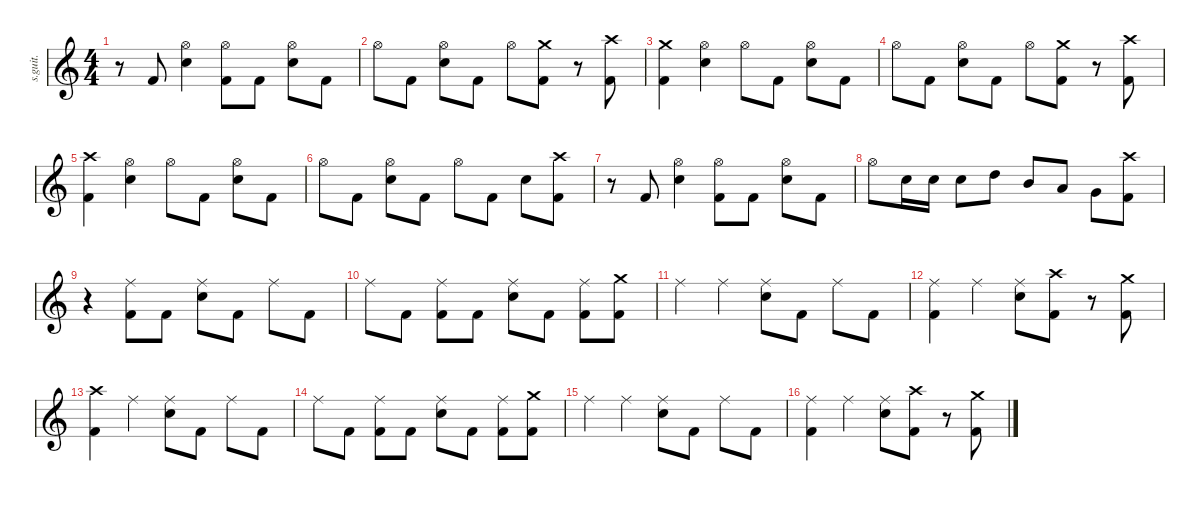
\defaultSystemsLayout 4
\hideDynamics
\bracketExtendMode nobrackets
\track ("Nick Menza (Drums)" "s.guit.") {instrument percussion}
\staff {score}
\articulation defaults
\ts (4 4)
\tempo (196 hide)
\clef g2
\ks c
r.8{dy f} "Kick (hit) 2".8{lyrics (0 "") lyrics (1 "") lyrics (2 "") lyrics (3 "") lyrics (4 "") dy fff} ("Hi-Hat (open)" "Snare (hit) 2").4{lyrics (0 "") lyrics (1 "") lyrics (2 "") lyrics (3 "") lyrics (4 "") dy f} ("Hi-Hat (open)" "Kick (hit) 2").8{lyrics (0 "") lyrics (1 "") lyrics (2 "") lyrics (3 "") lyrics (4 "")} "Kick (hit) 2".8{lyrics (0 "") lyrics (1 "") lyrics (2 "") lyrics (3 "") lyrics (4 "") dy fff} ("Hi-Hat (open)" "Snare (hit) 2").8{lyrics (0 "") lyrics (1 "") lyrics (2 "") lyrics (3 "") lyrics (4 "") dy f} "Kick (hit) 2".8{lyrics (0 "") lyrics (1 "") lyrics (2 "") lyrics (3 "") lyrics (4 "") dy fff} |
"Hi-Hat (open)".8{lyrics (0 "") lyrics (1 "") lyrics (2 "") lyrics (3 "") lyrics (4 "") dy f} "Kick (hit) 2".8{lyrics (0 "") lyrics (1 "") lyrics (2 "") lyrics (3 "") lyrics (4 "") dy fff} ("Hi-Hat (open)" "Snare (hit) 2").8{lyrics (0 "") lyrics (1 "") lyrics (2 "") lyrics (3 "") lyrics (4 "") dy f} "Kick (hit) 2".8{lyrics (0 "") lyrics (1 "") lyrics (2 "") lyrics (3 "") lyrics (4 "") dy fff} "Hi-Hat (open)".8{lyrics (0 "") lyrics (1 "") lyrics (2 "") lyrics (3 "") lyrics (4 "") dy f} ("Crash medium (hit)" "Kick (hit) 2").8{lyrics (0 "") lyrics (1 "") lyrics (2 "") lyrics (3 "") lyrics (4 "")} r.8 ("Crash high (hit)" "Kick (hit) 2").8{lyrics (0 "") lyrics (1 "") lyrics (2 "") lyrics (3 "") lyrics (4 "")} |
("Crash medium (hit)" "Kick (hit) 2").4{lyrics (0 "") lyrics (1 "") lyrics (2 "") lyrics (3 "") lyrics (4 "")} ("Hi-Hat (open)" "Snare (hit) 2").4{lyrics (0 "") lyrics (1 "") lyrics (2 "") lyrics (3 "") lyrics (4 "")} "Hi-Hat (open)".8{lyrics (0 "") lyrics (1 "") lyrics (2 "") lyrics (3 "") lyrics (4 "")} "Kick (hit) 2".8{lyrics (0 "") lyrics (1 "") lyrics (2 "") lyrics (3 "") lyrics (4 "") dy fff} ("Hi-Hat (open)" "Snare (hit) 2").8{lyrics (0 "") lyrics (1 "") lyrics (2 "") lyrics (3 "") lyrics (4 "") dy f} "Kick (hit) 2".8{lyrics (0 "") lyrics (1 "") lyrics (2 "") lyrics (3 "") lyrics (4 "") dy fff} |
"Hi-Hat (open)".8{lyrics (0 "") lyrics (1 "") lyrics (2 "") lyrics (3 "") lyrics (4 "") dy f} "Kick (hit) 2".8{lyrics (0 "") lyrics (1 "") lyrics (2 "") lyrics (3 "") lyrics (4 "") dy fff} ("Hi-Hat (open)" "Snare (hit) 2").8{lyrics (0 "") lyrics (1 "") lyrics (2 "") lyrics (3 "") lyrics (4 "") dy f} "Kick (hit) 2".8{lyrics (0 "") lyrics (1 "") lyrics (2 "") lyrics (3 "") lyrics (4 "") dy fff} "Hi-Hat (open)".8{lyrics (0 "") lyrics (1 "") lyrics (2 "") lyrics (3 "") lyrics (4 "") dy f} ("Crash medium (hit)" "Kick (hit) 2").8{lyrics (0 "") lyrics (1 "") lyrics (2 "") lyrics (3 "") lyrics (4 "")} r.8 ("Crash high (hit)" "Kick (hit) 2").8{lyrics (0 "") lyrics (1 "") lyrics (2 "") lyrics (3 "") lyrics (4 "")} |
("Crash high (hit)" "Kick (hit) 2").4{lyrics (0 "") lyrics (1 "") lyrics (2 "") lyrics (3 "") lyrics (4 "")} ("Hi-Hat (open)" "Snare (hit) 2").4{lyrics (0 "") lyrics (1 "") lyrics (2 "") lyrics (3 "") lyrics (4 "")} "Hi-Hat (open)".8{lyrics (0 "") lyrics (1 "") lyrics (2 "") lyrics (3 "") lyrics (4 "")} "Kick (hit) 2".8{lyrics (0 "") lyrics (1 "") lyrics (2 "") lyrics (3 "") lyrics (4 "") dy fff} ("Hi-Hat (open)" "Snare (hit) 2").8{lyrics (0 "") lyrics (1 "") lyrics (2 "") lyrics (3 "") lyrics (4 "") dy f} "Kick (hit) 2".8{lyrics (0 "") lyrics (1 "") lyrics (2 "") lyrics (3 "") lyrics (4 "") dy fff} |
"Hi-Hat (open)".8{lyrics (0 "") lyrics (1 "") lyrics (2 "") lyrics (3 "") lyrics (4 "") dy f} "Kick (hit) 2".8{lyrics (0 "") lyrics (1 "") lyrics (2 "") lyrics (3 "") lyrics (4 "") dy fff} ("Hi-Hat (open)" "Snare (hit) 2").8{lyrics (0 "") lyrics (1 "") lyrics (2 "") lyrics (3 "") lyrics (4 "") dy f} "Kick (hit) 2".8{lyrics (0 "") lyrics (1 "") lyrics (2 "") lyrics (3 "") lyrics (4 "") dy fff} "Hi-Hat (open)".8{lyrics (0 "") lyrics (1 "") lyrics (2 "") lyrics (3 "") lyrics (4 "") dy f} "Kick (hit) 2".8{lyrics (0 "") lyrics (1 "") lyrics (2 "") lyrics (3 "") lyrics (4 "") dy fff} "Snare (hit) 2".8{lyrics (0 "") lyrics (1 "") lyrics (2 "") lyrics (3 "") lyrics (4 "") dy f} ("Crash high (hit)" "Kick (hit) 2").8{lyrics (0 "") lyrics (1 "") lyrics (2 "") lyrics (3 "") lyrics (4 "")} |
r.8 "Kick (hit) 2".8{lyrics (0 "") lyrics (1 "") lyrics (2 "") lyrics (3 "") lyrics (4 "") dy fff} ("Hi-Hat (open)" "Snare (hit) 2").4{lyrics (0 "") lyrics (1 "") lyrics (2 "") lyrics (3 "") lyrics (4 "") dy f} ("Hi-Hat (open)" "Kick (hit) 2").8{lyrics (0 "") lyrics (1 "") lyrics (2 "") lyrics (3 "") lyrics (4 "")} "Kick (hit) 2".8{lyrics (0 "") lyrics (1 "") lyrics (2 "") lyrics (3 "") lyrics (4 "") dy fff} ("Hi-Hat (open)" "Snare (hit) 2").8{lyrics (0 "") lyrics (1 "") lyrics (2 "") lyrics (3 "") lyrics (4 "") dy f} "Kick (hit) 2".8{lyrics (0 "") lyrics (1 "") lyrics (2 "") lyrics (3 "") lyrics (4 "") dy fff} |
"Hi-Hat (open)".8{lyrics (0 "") lyrics (1 "") lyrics (2 "") lyrics (3 "") lyrics (4 "") dy f} "Snare (hit) 2".16{lyrics (0 "") lyrics (1 "") lyrics (2 "") lyrics (3 "") lyrics (4 "")} "Snare (hit) 2".16{lyrics (0 "") lyrics (1 "") lyrics (2 "") lyrics (3 "") lyrics (4 "")} "Snare (hit) 2".8{lyrics (0 "") lyrics (1 "") lyrics (2 "") lyrics (3 "") lyrics (4 "")} "High Tom (hit)".8{lyrics (0 "") lyrics (1 "") lyrics (2 "") lyrics (3 "") lyrics (4 "") dy fff} "Mid Tom (hit)".8{lyrics (0 "") lyrics (1 "") lyrics (2 "") lyrics (3 "") lyrics (4 "")} "Low Tom (hit)".8{lyrics (0 "") lyrics (1 "") lyrics (2 "") lyrics (3 "") lyrics (4 "")} "Very Low Tom (hit)".8{lyrics (0 "") lyrics (1 "") lyrics (2 "") lyrics (3 "") lyrics (4 "") dy f} ("Crash high (hit)" "Kick (hit) 2").8{lyrics (0 "") lyrics (1 "") lyrics (2 "") lyrics (3 "") lyrics (4 "")} |
r.4 ("Ride (middle)" "Kick (hit) 2").8{lyrics (0 "") lyrics (1 "") lyrics (2 "") lyrics (3 "") lyrics (4 "")} "Kick (hit) 2".8{lyrics (0 "") lyrics (1 "") lyrics (2 "") lyrics (3 "") lyrics (4 "") dy fff} ("Ride (middle)" "Snare (hit) 2").8{lyrics (0 "") lyrics (1 "") lyrics (2 "") lyrics (3 "") lyrics (4 "") dy f} "Kick (hit) 2".8{lyrics (0 "") lyrics (1 "") lyrics (2 "") lyrics (3 "") lyrics (4 "") dy fff} "Ride (middle)".8{lyrics (0 "") lyrics (1 "") lyrics (2 "") lyrics (3 "") lyrics (4 "") dy f} "Kick (hit) 2".8{lyrics (0 "") lyrics (1 "") lyrics (2 "") lyrics (3 "") lyrics (4 "") dy fff} |
"Ride (middle)".8{lyrics (0 "") lyrics (1 "") lyrics (2 "") lyrics (3 "") lyrics (4 "") dy f} "Kick (hit) 2".8{lyrics (0 "") lyrics (1 "") lyrics (2 "") lyrics (3 "") lyrics (4 "") dy fff} ("Ride (middle)" "Kick (hit) 2").8{lyrics (0 "") lyrics (1 "") lyrics (2 "") lyrics (3 "") lyrics (4 "") dy f} "Kick (hit) 2".8{lyrics (0 "") lyrics (1 "") lyrics (2 "") lyrics (3 "") lyrics (4 "") dy fff} ("Ride (middle)" "Snare (hit) 2").8{lyrics (0 "") lyrics (1 "") lyrics (2 "") lyrics (3 "") lyrics (4 "") dy f} "Kick (hit) 2".8{lyrics (0 "") lyrics (1 "") lyrics (2 "") lyrics (3 "") lyrics (4 "") dy fff} ("Ride (middle)" "Kick (hit) 2").8{lyrics (0 "") lyrics (1 "") lyrics (2 "") lyrics (3 "") lyrics (4 "") dy f} ("Crash medium (hit)" "Kick (hit) 2").8{lyrics (0 "") lyrics (1 "") lyrics (2 "") lyrics (3 "") lyrics (4 "")} |
"Ride (middle)".4{lyrics (0 "") lyrics (1 "") lyrics (2 "") lyrics (3 "") lyrics (4 "")} "Ride (middle)".4{lyrics (0 "") lyrics (1 "") lyrics (2 "") lyrics (3 "") lyrics (4 "")} ("Ride (middle)" "Snare (hit) 2").8{lyrics (0 "") lyrics (1 "") lyrics (2 "") lyrics (3 "") lyrics (4 "")} "Kick (hit) 2".8{lyrics (0 "") lyrics (1 "") lyrics (2 "") lyrics (3 "") lyrics (4 "") dy fff} "Ride (middle)".8{lyrics (0 "") lyrics (1 "") lyrics (2 "") lyrics (3 "") lyrics (4 "") dy f} "Kick (hit) 2".8{lyrics (0 "") lyrics (1 "") lyrics (2 "") lyrics (3 "") lyrics (4 "") dy fff} |
("Ride (middle)" "Kick (hit) 2").4{lyrics (0 "") lyrics (1 "") lyrics (2 "") lyrics (3 "") lyrics (4 "") dy f} "Ride (middle)".4{lyrics (0 "") lyrics (1 "") lyrics (2 "") lyrics (3 "") lyrics (4 "")} ("Ride (middle)" "Snare (hit) 2").8{lyrics (0 "") lyrics (1 "") lyrics (2 "") lyrics (3 "") lyrics (4 "")} ("Crash high (hit)" "Kick (hit) 2").8{lyrics (0 "") lyrics (1 "") lyrics (2 "") lyrics (3 "") lyrics (4 "")} r.8 ("Crash medium (hit)" "Kick (hit) 2").8{lyrics (0 "") lyrics (1 "") lyrics (2 "") lyrics (3 "") lyrics (4 "")} |
("Crash high (hit)" "Kick (hit) 2").4{lyrics (0 "") lyrics (1 "") lyrics (2 "") lyrics (3 "") lyrics (4 "")} "Ride (middle)".4{lyrics (0 "") lyrics (1 "") lyrics (2 "") lyrics (3 "") lyrics (4 "")} ("Ride (middle)" "Snare (hit) 2").8{lyrics (0 "") lyrics (1 "") lyrics (2 "") lyrics (3 "") lyrics (4 "")} "Kick (hit) 2".8{lyrics (0 "") lyrics (1 "") lyrics (2 "") lyrics (3 "") lyrics (4 "") dy fff} "Ride (middle)".8{lyrics (0 "") lyrics (1 "") lyrics (2 "") lyrics (3 "") lyrics (4 "") dy f} "Kick (hit) 2".8{lyrics (0 "") lyrics (1 "") lyrics (2 "") lyrics (3 "") lyrics (4 "") dy fff} |
"Ride (middle)".8{lyrics (0 "") lyrics (1 "") lyrics (2 "") lyrics (3 "") lyrics (4 "") dy f} "Kick (hit) 2".8{lyrics (0 "") lyrics (1 "") lyrics (2 "") lyrics (3 "") lyrics (4 "") dy fff} ("Ride (middle)" "Kick (hit) 2").8{lyrics (0 "") lyrics (1 "") lyrics (2 "") lyrics (3 "") lyrics (4 "") dy f} "Kick (hit) 2".8{lyrics (0 "") lyrics (1 "") lyrics (2 "") lyrics (3 "") lyrics (4 "") dy fff} ("Ride (middle)" "Snare (hit) 2").8{lyrics (0 "") lyrics (1 "") lyrics (2 "") lyrics (3 "") lyrics (4 "") dy f} "Kick (hit) 2".8{lyrics (0 "") lyrics (1 "") lyrics (2 "") lyrics (3 "") lyrics (4 "") dy fff} ("Ride (middle)" "Kick (hit) 2").8{lyrics (0 "") lyrics (1 "") lyrics (2 "") lyrics (3 "") lyrics (4 "") dy f} ("Crash medium (hit)" "Kick (hit) 2").8{lyrics (0 "") lyrics (1 "") lyrics (2 "") lyrics (3 "") lyrics (4 "")} |
"Ride (middle)".4{lyrics (0 "") lyrics (1 "") lyrics (2 "") lyrics (3 "") lyrics (4 "")} "Ride (middle)".4{lyrics (0 "") lyrics (1 "") lyrics (2 "") lyrics (3 "") lyrics (4 "")} ("Ride (middle)" "Snare (hit) 2").8{lyrics (0 "") lyrics (1 "") lyrics (2 "") lyrics (3 "") lyrics (4 "")} "Kick (hit) 2".8{lyrics (0 "") lyrics (1 "") lyrics (2 "") lyrics (3 "") lyrics (4 "") dy fff} "Ride (middle)".8{lyrics (0 "") lyrics (1 "") lyrics (2 "") lyrics (3 "") lyrics (4 "") dy f} "Kick (hit) 2".8{lyrics (0 "") lyrics (1 "") lyrics (2 "") lyrics (3 "") lyrics (4 "") dy fff} |
("Ride (middle)" "Kick (hit) 2").4{lyrics (0 "") lyrics (1 "") lyrics (2 "") lyrics (3 "") lyrics (4 "") dy f} "Ride (middle)".4{lyrics (0 "") lyrics (1 "") lyrics (2 "") lyrics (3 "") lyrics (4 "")} ("Ride (middle)" "Snare (hit) 2").8{lyrics (0 "") lyrics (1 "") lyrics (2 "") lyrics (3 "") lyrics (4 "")} ("Crash high (hit)" "Kick (hit) 2").8{lyrics (0 "") lyrics (1 "") lyrics (2 "") lyrics (3 "") lyrics (4 "")} r.8 ("Crash medium (hit)" "Kick (hit) 2").8{lyrics (0 "") lyrics (1 "") lyrics (2 "") lyrics (3 "") lyrics (4 "")}
